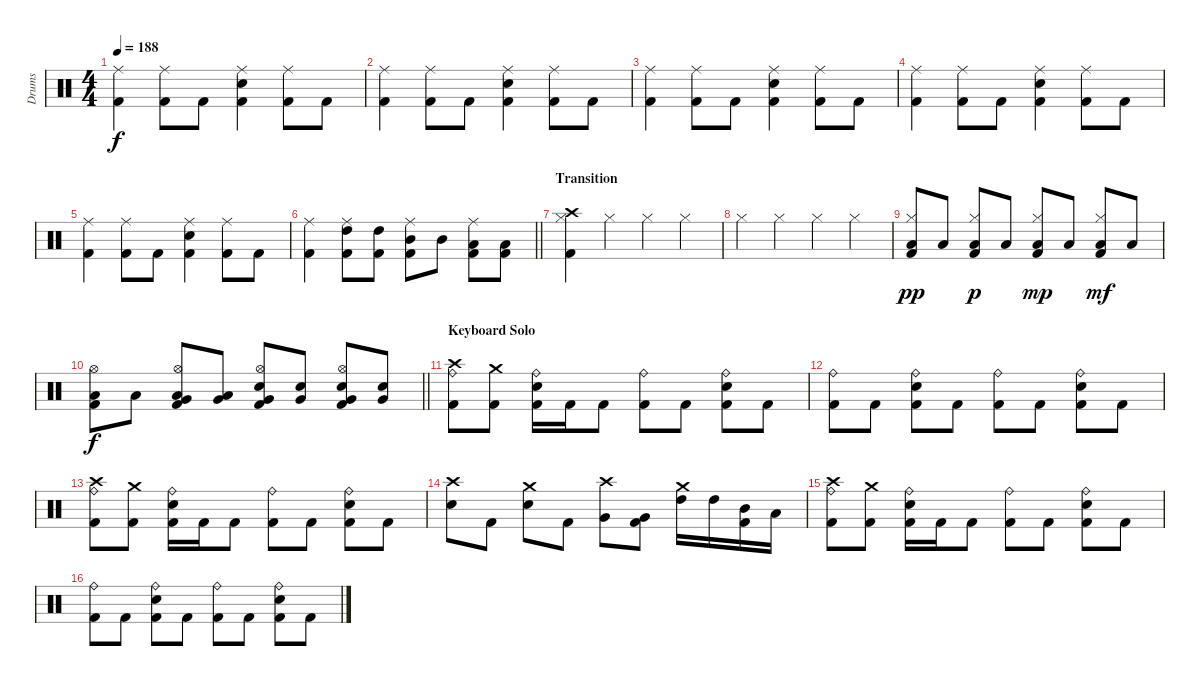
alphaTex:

\track ("Drums" "Drums") {instrument percussion}
\staff {score}
\articulation defaults
\ts (4 4)
\tempo 188
\clef neutral
\ks c
("Ride (middle)" "Kick (hit) 2").4{dy f} ("Ride (middle)" "Kick (hit) 2").8 "Kick (hit) 2".8 ("Ride (middle)" "Snare (hit) 2" "Kick (hit) 2").4 ("Ride (middle)" "Kick (hit) 2").8 "Kick (hit) 2".8 |
("Ride (middle)" "Kick (hit) 2").4 ("Ride (middle)" "Kick (hit) 2").8 "Kick (hit) 2".8 ("Ride (middle)" "Snare (hit) 2" "Kick (hit) 2").4 ("Ride (middle)" "Kick (hit) 2").8 "Kick (hit) 2".8 |
("Ride (middle)" "Kick (hit) 2").4 ("Ride (middle)" "Kick (hit) 2").8 "Kick (hit) 2".8 ("Ride (middle)" "Snare (hit) 2" "Kick (hit) 2").4 ("Ride (middle)" "Kick (hit) 2").8 "Kick (hit) 2".8 |
("Ride (middle)" "Kick (hit) 2").4 ("Ride (middle)" "Kick (hit) 2").8 "Kick (hit) 2".8 ("Ride (middle)" "Snare (hit) 2" "Kick (hit) 2").4 ("Ride (middle)" "Kick (hit) 2").8 "Kick (hit) 2".8 |
("Ride (middle)" "Kick (hit) 2").4 ("Ride (middle)" "Kick (hit) 2").8 "Kick (hit) 2".8 ("Ride (middle)" "Snare (hit) 2" "Kick (hit) 2").4 ("Ride (middle)" "Kick (hit) 2").8 "Kick (hit) 2".8 |
\barLineRight lightlight
("Ride (middle)" "Kick (hit) 2").4 ("Ride (middle)" "High Tom (hit)" "Kick (hit) 2").8 ("High Tom (hit)" "Kick (hit) 2").8 ("Ride (middle)" "Mid Tom (hit)" "Kick (hit) 2").8 "Mid Tom (hit)".8 ("Ride (middle)" "Low Tom (hit)" "Kick (hit) 2").8 ("Low Tom (hit)" "Kick (hit) 2").8 |
\section ("" "Transition")
("Crash high (hit)" "Hi-Hat (closed)" "Kick (hit) 2").4 "Hi-Hat (closed)".4 "Hi-Hat (closed)".4 "Hi-Hat (closed)".4 |
"Hi-Hat (closed)".4 "Hi-Hat (closed)".4 "Hi-Hat (closed)".4 "Hi-Hat (closed)".4 |
("Hi-Hat (closed)" "Low Floor Tom (hit)" "Kick (hit) 2").8{dy pp} "Low Floor Tom (hit)".8 ("Hi-Hat (closed)" "Low Floor Tom (hit)" "Kick (hit) 2").8{dy p} "Low Floor Tom (hit)".8 ("Hi-Hat (closed)" "Low Floor Tom (hit)" "Kick (hit) 2").8{dy mp} "Low Floor Tom (hit)".8 ("Hi-Hat (closed)" "Low Floor Tom (hit)" "Kick (hit) 2").8{dy mf} "Low Floor Tom (hit)".8 |
\barLineRight lightlight
("Hi-Hat (open)" "Low Floor Tom (hit)" "Kick (hit) 2").8{dy f} "Low Floor Tom (hit)".8 ("Hi-Hat (open)" "Very Low Tom (hit)" "Low Floor Tom (hit)" "Kick (hit) 2").8 ("Very Low Tom (hit)" "Low Floor Tom (hit)").8 ("Hi-Hat (open)" "Very Low Tom (hit)" "Snare (hit) 2" "Kick (hit) 2").8 ("Very Low Tom (hit)" "Snare (hit) 2").8 ("Hi-Hat (open)" "Very Low Tom (hit)" "Snare (hit) 2" "Kick (hit) 2").8 ("Very Low Tom (hit)" "Snare (hit) 2").8 |
\section ("" "Keyboard Solo")
("Crash high (hit)" "Ride (bell)" "Kick (hit) 2").8 ("Crash medium (hit)" "Kick (hit) 2").8 ("Ride (bell)" "Snare (hit) 2" "Kick (hit) 2").16 "Kick (hit) 2".16 "Kick (hit) 2".8 ("Ride (bell)" "Kick (hit) 2").8 "Kick (hit) 2".8 ("Ride (bell)" "Snare (hit) 2" "Kick (hit) 2").8 "Kick (hit) 2".8 |
("Ride (bell)" "Kick (hit) 2").8 "Kick (hit) 2".8 ("Ride (bell)" "Snare (hit) 2" "Kick (hit) 2").8 "Kick (hit) 2".8 ("Ride (bell)" "Kick (hit) 2").8 "Kick (hit) 2".8 ("Ride (bell)" "Snare (hit) 2" "Kick (hit) 2").8 "Kick (hit) 2".8 |
("Crash high (hit)" "Ride (bell)" "Kick (hit) 2").8 ("Crash medium (hit)" "Kick (hit) 2").8 ("Ride (bell)" "Snare (hit) 2" "Kick (hit) 2").16 "Kick (hit) 2".16 "Kick (hit) 2".8 ("Ride (bell)" "Kick (hit) 2").8 "Kick (hit) 2".8 ("Ride (bell)" "Snare (hit) 2" "Kick (hit) 2").8 "Kick (hit) 2".8 |
("Crash high (hit)" "Snare (hit) 2").8 "Kick (hit) 2".8 ("Crash medium (hit)" "Snare (hit) 2").8 "Kick (hit) 2".8 ("Crash high (hit)" "Very Low Tom (hit)").8 ("Very Low Tom (hit)" "Kick (hit) 2").8 ("Crash medium (hit)" "High Tom (hit)").16 "High Tom (hit)".16 ("Mid Tom (hit)" "Kick (hit) 2").16 "Low Tom (hit)".16 |
("Crash high (hit)" "Ride (bell)" "Kick (hit) 2").8 ("Crash medium (hit)" "Kick (hit) 2").8 ("Ride (bell)" "Snare (hit) 2" "Kick (hit) 2").16 "Kick (hit) 2".16 "Kick (hit) 2".8 ("Ride (bell)" "Kick (hit) 2").8 "Kick (hit) 2".8 ("Ride (bell)" "Snare (hit) 2" "Kick (hit) 2").8 "Kick (hit) 2".8 |
("Ride (bell)" "Kick (hit) 2").8 "Kick (hit) 2".8 ("Ride (bell)" "Snare (hit) 2" "Kick (hit) 2").8 "Kick (hit) 2".8 ("Ride (bell)" "Kick (hit) 2").8 "Kick (hit) 2".8 ("Ride (bell)" "Snare (hit) 2" "Kick (hit) 2").8 "Kick (hit) 2".8
